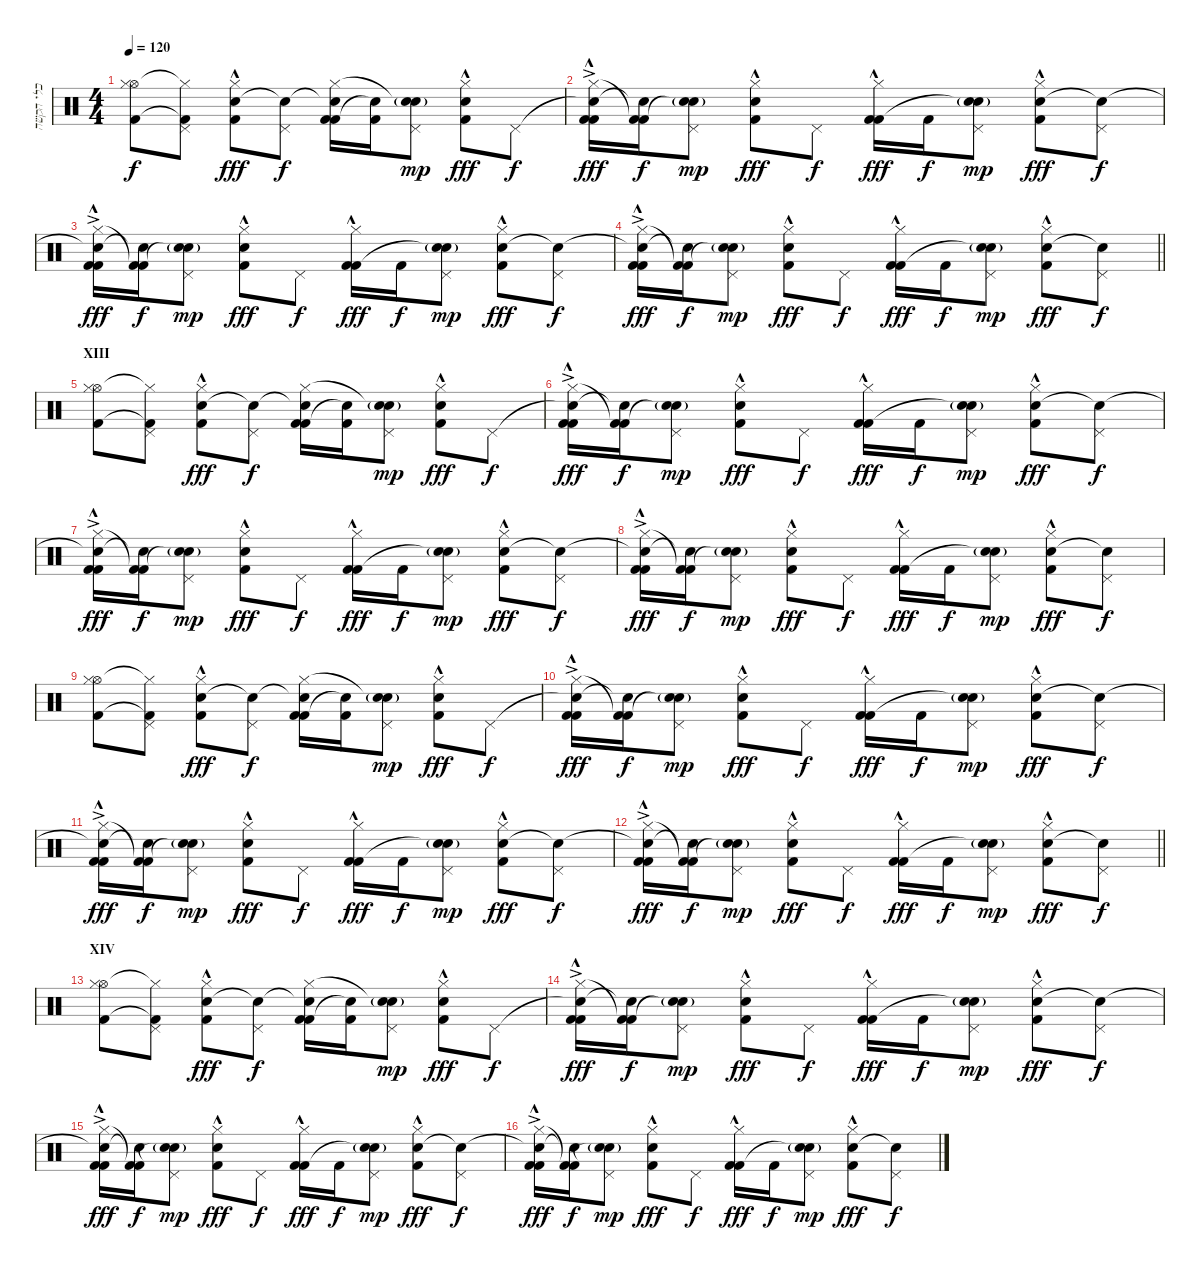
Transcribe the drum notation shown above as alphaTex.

\track ("כלי הקשה" "כלי הקשה") {instrument percussion}
\staff {score}
\articulation defaults
\ts (4 4)
\tempo 120
\clef neutral
\ks c
("Hi-Hat (open)" "Hi-Hat (closed)" "Kick (hit) 2").8{dy f} ("Pedal Hi-Hat (hit)" "Hi-Hat (closed)"{t} "Kick (hit) 2"{t}).8 ("Hand Clap (hit)"{hac} "Hi-Hat (closed)" "Kick (hit) 2").8{dy fff} ("Snare (hit)"{t} "Pedal Hi-Hat (hit)").8{dy f} ("Snare (hit)"{t} "Kick (hit) 2" "Hi-Hat (closed)" "Kick (hit) 2").16 ("Kick (hit) 2" "Snare (hit)"{t}).16 ("Hand Clap (hit)"{g} "Pedal Hi-Hat (hit)" "Snare (hit)"{t}).8{dy mp} ("Hand Clap (hit)"{hac} "Hi-Hat (closed)" "Kick (hit) 2").8{dy fff} "Pedal Hi-Hat (hit)".8{dy f} |
("Snare (hit)"{t} "Kick (hit) 2"{ac} "Hi-Hat (closed)"{hac} "Kick (hit) 2"{hac}).16{dy fff} ("Snare (hit)"{t} "Kick (hit) 2" "Kick (hit) 2"{t}).16{dy f} ("Hand Clap (hit)"{g} "Pedal Hi-Hat (hit)" "Snare (hit)"{t}).8{dy mp} ("Hand Clap (hit)"{hac} "Hi-Hat (closed)"{hac} "Kick (hit) 2"{hac}).8{dy fff} "Pedal Hi-Hat (hit)".8{dy f} ("Kick (hit) 2" "Hi-Hat (closed)"{hac} "Kick (hit) 2"{hac}).16{dy fff} "Kick (hit) 2".16{dy f} ("Hand Clap (hit)"{g} "Pedal Hi-Hat (hit)" "Snare (hit)"{t}).8{dy mp} ("Hand Clap (hit)"{hac} "Hi-Hat (closed)"{hac} "Kick (hit) 2"{hac}).8{dy fff} ("Snare (hit)"{t} "Pedal Hi-Hat (hit)").8{dy f} |
("Snare (hit)"{t} "Kick (hit) 2"{ac} "Hi-Hat (closed)"{hac} "Kick (hit) 2"{hac}).16{dy fff} ("Snare (hit)"{t} "Kick (hit) 2" "Kick (hit) 2"{t}).16{dy f} ("Hand Clap (hit)"{g} "Pedal Hi-Hat (hit)" "Snare (hit)"{t}).8{dy mp} ("Hand Clap (hit)"{hac} "Hi-Hat (closed)"{hac} "Kick (hit) 2"{hac}).8{dy fff} "Pedal Hi-Hat (hit)".8{dy f} ("Kick (hit) 2" "Hi-Hat (closed)"{hac} "Kick (hit) 2"{hac}).16{dy fff} "Kick (hit) 2".16{dy f} ("Hand Clap (hit)"{g} "Pedal Hi-Hat (hit)" "Snare (hit)"{t}).8{dy mp} ("Hand Clap (hit)"{hac} "Hi-Hat (closed)"{hac} "Kick (hit) 2"{hac}).8{dy fff} ("Snare (hit)"{t} "Pedal Hi-Hat (hit)").8{dy f} |
\barLineRight lightlight
("Snare (hit)"{t} "Kick (hit) 2"{ac} "Hi-Hat (closed)"{hac} "Kick (hit) 2"{hac}).16{dy fff} ("Snare (hit)"{t} "Kick (hit) 2" "Kick (hit) 2"{t}).16{dy f} ("Hand Clap (hit)"{g} "Pedal Hi-Hat (hit)" "Snare (hit)"{t}).8{dy mp} ("Hand Clap (hit)"{hac} "Hi-Hat (closed)"{hac} "Kick (hit) 2"{hac}).8{dy fff} "Pedal Hi-Hat (hit)".8{dy f} ("Kick (hit) 2" "Hi-Hat (closed)"{hac} "Kick (hit) 2"{hac}).16{dy fff} "Kick (hit) 2".16{dy f} ("Hand Clap (hit)"{g} "Pedal Hi-Hat (hit)" "Snare (hit)"{t}).8{dy mp} ("Hand Clap (hit)"{hac} "Hi-Hat (closed)"{hac} "Kick (hit) 2"{hac}).8{dy fff} ("Snare (hit)"{t} "Pedal Hi-Hat (hit)").8{dy f} |
\section ("" "XIII")
("Hi-Hat (open)" "Hi-Hat (closed)" "Kick (hit) 2").8 ("Pedal Hi-Hat (hit)" "Hi-Hat (closed)"{t} "Kick (hit) 2"{t}).8 ("Hand Clap (hit)"{hac} "Hi-Hat (closed)" "Kick (hit) 2").8{dy fff} ("Snare (hit)"{t} "Pedal Hi-Hat (hit)").8{dy f} ("Snare (hit)"{t} "Kick (hit) 2" "Hi-Hat (closed)" "Kick (hit) 2").16 ("Kick (hit) 2" "Snare (hit)"{t}).16 ("Hand Clap (hit)"{g} "Pedal Hi-Hat (hit)" "Snare (hit)"{t}).8{dy mp} ("Hand Clap (hit)"{hac} "Hi-Hat (closed)" "Kick (hit) 2").8{dy fff} "Pedal Hi-Hat (hit)".8{dy f} |
("Snare (hit)"{t} "Kick (hit) 2"{ac} "Hi-Hat (closed)"{hac} "Kick (hit) 2"{hac}).16{dy fff} ("Snare (hit)"{t} "Kick (hit) 2" "Kick (hit) 2"{t}).16{dy f} ("Hand Clap (hit)"{g} "Pedal Hi-Hat (hit)" "Snare (hit)"{t}).8{dy mp} ("Hand Clap (hit)"{hac} "Hi-Hat (closed)"{hac} "Kick (hit) 2"{hac}).8{dy fff} "Pedal Hi-Hat (hit)".8{dy f} ("Kick (hit) 2" "Hi-Hat (closed)"{hac} "Kick (hit) 2"{hac}).16{dy fff} "Kick (hit) 2".16{dy f} ("Hand Clap (hit)"{g} "Pedal Hi-Hat (hit)" "Snare (hit)"{t}).8{dy mp} ("Hand Clap (hit)"{hac} "Hi-Hat (closed)"{hac} "Kick (hit) 2"{hac}).8{dy fff} ("Snare (hit)"{t} "Pedal Hi-Hat (hit)").8{dy f} |
("Snare (hit)"{t} "Kick (hit) 2"{ac} "Hi-Hat (closed)"{hac} "Kick (hit) 2"{hac}).16{dy fff} ("Snare (hit)"{t} "Kick (hit) 2" "Kick (hit) 2"{t}).16{dy f} ("Hand Clap (hit)"{g} "Pedal Hi-Hat (hit)" "Snare (hit)"{t}).8{dy mp} ("Hand Clap (hit)"{hac} "Hi-Hat (closed)"{hac} "Kick (hit) 2"{hac}).8{dy fff} "Pedal Hi-Hat (hit)".8{dy f} ("Kick (hit) 2" "Hi-Hat (closed)"{hac} "Kick (hit) 2"{hac}).16{dy fff} "Kick (hit) 2".16{dy f} ("Hand Clap (hit)"{g} "Pedal Hi-Hat (hit)" "Snare (hit)"{t}).8{dy mp} ("Hand Clap (hit)"{hac} "Hi-Hat (closed)"{hac} "Kick (hit) 2"{hac}).8{dy fff} ("Snare (hit)"{t} "Pedal Hi-Hat (hit)").8{dy f} |
("Snare (hit)"{t} "Kick (hit) 2"{ac} "Hi-Hat (closed)"{hac} "Kick (hit) 2"{hac}).16{dy fff} ("Snare (hit)"{t} "Kick (hit) 2" "Kick (hit) 2"{t}).16{dy f} ("Hand Clap (hit)"{g} "Pedal Hi-Hat (hit)" "Snare (hit)"{t}).8{dy mp} ("Hand Clap (hit)"{hac} "Hi-Hat (closed)"{hac} "Kick (hit) 2"{hac}).8{dy fff} "Pedal Hi-Hat (hit)".8{dy f} ("Kick (hit) 2" "Hi-Hat (closed)"{hac} "Kick (hit) 2"{hac}).16{dy fff} "Kick (hit) 2".16{dy f} ("Hand Clap (hit)"{g} "Pedal Hi-Hat (hit)" "Snare (hit)"{t}).8{dy mp} ("Hand Clap (hit)"{hac} "Hi-Hat (closed)"{hac} "Kick (hit) 2"{hac}).8{dy fff} ("Snare (hit)"{t} "Pedal Hi-Hat (hit)").8{dy f} |
("Hi-Hat (open)" "Hi-Hat (closed)" "Kick (hit) 2").8 ("Pedal Hi-Hat (hit)" "Hi-Hat (closed)"{t} "Kick (hit) 2"{t}).8 ("Hand Clap (hit)"{hac} "Hi-Hat (closed)" "Kick (hit) 2").8{dy fff} ("Snare (hit)"{t} "Pedal Hi-Hat (hit)").8{dy f} ("Snare (hit)"{t} "Kick (hit) 2" "Hi-Hat (closed)" "Kick (hit) 2").16 ("Kick (hit) 2" "Snare (hit)"{t}).16 ("Hand Clap (hit)"{g} "Pedal Hi-Hat (hit)" "Snare (hit)"{t}).8{dy mp} ("Hand Clap (hit)"{hac} "Hi-Hat (closed)" "Kick (hit) 2").8{dy fff} "Pedal Hi-Hat (hit)".8{dy f} |
("Snare (hit)"{t} "Kick (hit) 2"{ac} "Hi-Hat (closed)"{hac} "Kick (hit) 2"{hac}).16{dy fff} ("Snare (hit)"{t} "Kick (hit) 2" "Kick (hit) 2"{t}).16{dy f} ("Hand Clap (hit)"{g} "Pedal Hi-Hat (hit)" "Snare (hit)"{t}).8{dy mp} ("Hand Clap (hit)"{hac} "Hi-Hat (closed)"{hac} "Kick (hit) 2"{hac}).8{dy fff} "Pedal Hi-Hat (hit)".8{dy f} ("Kick (hit) 2" "Hi-Hat (closed)"{hac} "Kick (hit) 2"{hac}).16{dy fff} "Kick (hit) 2".16{dy f} ("Hand Clap (hit)"{g} "Pedal Hi-Hat (hit)" "Snare (hit)"{t}).8{dy mp} ("Hand Clap (hit)"{hac} "Hi-Hat (closed)"{hac} "Kick (hit) 2"{hac}).8{dy fff} ("Snare (hit)"{t} "Pedal Hi-Hat (hit)").8{dy f} |
("Snare (hit)"{t} "Kick (hit) 2"{ac} "Hi-Hat (closed)"{hac} "Kick (hit) 2"{hac}).16{dy fff} ("Snare (hit)"{t} "Kick (hit) 2" "Kick (hit) 2"{t}).16{dy f} ("Hand Clap (hit)"{g} "Pedal Hi-Hat (hit)" "Snare (hit)"{t}).8{dy mp} ("Hand Clap (hit)"{hac} "Hi-Hat (closed)"{hac} "Kick (hit) 2"{hac}).8{dy fff} "Pedal Hi-Hat (hit)".8{dy f} ("Kick (hit) 2" "Hi-Hat (closed)"{hac} "Kick (hit) 2"{hac}).16{dy fff} "Kick (hit) 2".16{dy f} ("Hand Clap (hit)"{g} "Pedal Hi-Hat (hit)" "Snare (hit)"{t}).8{dy mp} ("Hand Clap (hit)"{hac} "Hi-Hat (closed)"{hac} "Kick (hit) 2"{hac}).8{dy fff} ("Snare (hit)"{t} "Pedal Hi-Hat (hit)").8{dy f} |
\barLineRight lightlight
("Snare (hit)"{t} "Kick (hit) 2"{ac} "Hi-Hat (closed)"{hac} "Kick (hit) 2"{hac}).16{dy fff} ("Snare (hit)"{t} "Kick (hit) 2" "Kick (hit) 2"{t}).16{dy f} ("Hand Clap (hit)"{g} "Pedal Hi-Hat (hit)" "Snare (hit)"{t}).8{dy mp} ("Hand Clap (hit)"{hac} "Hi-Hat (closed)"{hac} "Kick (hit) 2"{hac}).8{dy fff} "Pedal Hi-Hat (hit)".8{dy f} ("Kick (hit) 2" "Hi-Hat (closed)"{hac} "Kick (hit) 2"{hac}).16{dy fff} "Kick (hit) 2".16{dy f} ("Hand Clap (hit)"{g} "Pedal Hi-Hat (hit)" "Snare (hit)"{t}).8{dy mp} ("Hand Clap (hit)"{hac} "Hi-Hat (closed)"{hac} "Kick (hit) 2"{hac}).8{dy fff} ("Snare (hit)"{t} "Pedal Hi-Hat (hit)").8{dy f} |
\section ("" "XIV")
("Hi-Hat (open)" "Hi-Hat (closed)" "Kick (hit) 2").8 ("Pedal Hi-Hat (hit)" "Hi-Hat (closed)"{t} "Kick (hit) 2"{t}).8 ("Hand Clap (hit)"{hac} "Hi-Hat (closed)" "Kick (hit) 2").8{dy fff} ("Snare (hit)"{t} "Pedal Hi-Hat (hit)").8{dy f} ("Snare (hit)"{t} "Kick (hit) 2" "Hi-Hat (closed)" "Kick (hit) 2").16 ("Kick (hit) 2" "Snare (hit)"{t}).16 ("Hand Clap (hit)"{g} "Pedal Hi-Hat (hit)" "Snare (hit)"{t}).8{dy mp} ("Hand Clap (hit)"{hac} "Hi-Hat (closed)" "Kick (hit) 2").8{dy fff} "Pedal Hi-Hat (hit)".8{dy f} |
("Snare (hit)"{t} "Kick (hit) 2"{ac} "Hi-Hat (closed)"{hac} "Kick (hit) 2"{hac}).16{dy fff} ("Snare (hit)"{t} "Kick (hit) 2" "Kick (hit) 2"{t}).16{dy f} ("Hand Clap (hit)"{g} "Pedal Hi-Hat (hit)" "Snare (hit)"{t}).8{dy mp} ("Hand Clap (hit)"{hac} "Hi-Hat (closed)"{hac} "Kick (hit) 2"{hac}).8{dy fff} "Pedal Hi-Hat (hit)".8{dy f} ("Kick (hit) 2" "Hi-Hat (closed)"{hac} "Kick (hit) 2"{hac}).16{dy fff} "Kick (hit) 2".16{dy f} ("Hand Clap (hit)"{g} "Pedal Hi-Hat (hit)" "Snare (hit)"{t}).8{dy mp} ("Hand Clap (hit)"{hac} "Hi-Hat (closed)"{hac} "Kick (hit) 2"{hac}).8{dy fff} ("Snare (hit)"{t} "Pedal Hi-Hat (hit)").8{dy f} |
("Snare (hit)"{t} "Kick (hit) 2"{ac} "Hi-Hat (closed)"{hac} "Kick (hit) 2"{hac}).16{dy fff} ("Snare (hit)"{t} "Kick (hit) 2" "Kick (hit) 2"{t}).16{dy f} ("Hand Clap (hit)"{g} "Pedal Hi-Hat (hit)" "Snare (hit)"{t}).8{dy mp} ("Hand Clap (hit)"{hac} "Hi-Hat (closed)"{hac} "Kick (hit) 2"{hac}).8{dy fff} "Pedal Hi-Hat (hit)".8{dy f} ("Kick (hit) 2" "Hi-Hat (closed)"{hac} "Kick (hit) 2"{hac}).16{dy fff} "Kick (hit) 2".16{dy f} ("Hand Clap (hit)"{g} "Pedal Hi-Hat (hit)" "Snare (hit)"{t}).8{dy mp} ("Hand Clap (hit)"{hac} "Hi-Hat (closed)"{hac} "Kick (hit) 2"{hac}).8{dy fff} ("Snare (hit)"{t} "Pedal Hi-Hat (hit)").8{dy f} |
("Snare (hit)"{t} "Kick (hit) 2"{ac} "Hi-Hat (closed)"{hac} "Kick (hit) 2"{hac}).16{dy fff} ("Snare (hit)"{t} "Kick (hit) 2" "Kick (hit) 2"{t}).16{dy f} ("Hand Clap (hit)"{g} "Pedal Hi-Hat (hit)" "Snare (hit)"{t}).8{dy mp} ("Hand Clap (hit)"{hac} "Hi-Hat (closed)"{hac} "Kick (hit) 2"{hac}).8{dy fff} "Pedal Hi-Hat (hit)".8{dy f} ("Kick (hit) 2" "Hi-Hat (closed)"{hac} "Kick (hit) 2"{hac}).16{dy fff} "Kick (hit) 2".16{dy f} ("Hand Clap (hit)"{g} "Pedal Hi-Hat (hit)" "Snare (hit)"{t}).8{dy mp} ("Hand Clap (hit)"{hac} "Hi-Hat (closed)"{hac} "Kick (hit) 2"{hac}).8{dy fff} ("Snare (hit)"{t} "Pedal Hi-Hat (hit)").8{dy f}
